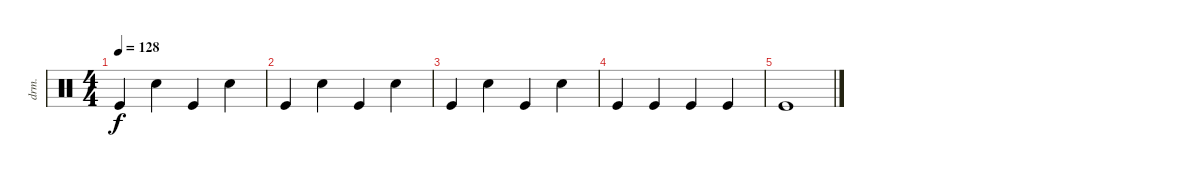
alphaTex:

\defaultSystemsLayout 4
\bracketExtendMode groupsimilarinstruments
\otherSystemsTrackNameOrientation horizontal
\track ("Drumkit" "drm.") {instrument percussion}
\staff {score}
\articulation defaults
\ts (4 4)
\tempo 128
\clef neutral
\ks c "Kick (hit)".4{dy f} "Snare (hit) 2".4 "Kick (hit)".4 "Snare (hit) 2".4
|
"Kick (hit)".4 "Snare (hit) 2".4 "Kick (hit)".4 "Snare (hit) 2".4 |
"Kick (hit)".4 "Snare (hit) 2".4 "Kick (hit)".4 "Snare (hit) 2".4 |
"Kick (hit)".4 "Kick (hit)".4 "Kick (hit)".4 "Kick (hit)".4 |
"Kick (hit)".1
